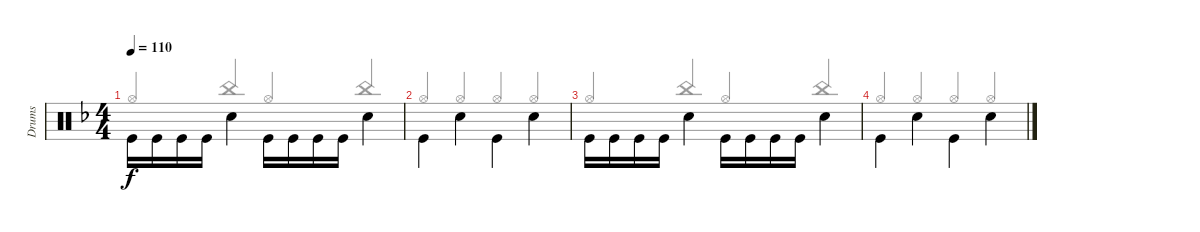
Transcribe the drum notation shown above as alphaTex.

\track ("Drums" "Drums") {instrument percussion}
\staff {score}
\articulation defaults
\voice
\ts (4 4)
\tempo 110
\clef neutral
\ks f "Kick (hit)".16{dy f beam Down} "Kick (hit)".16{beam Down} "Kick (hit)".16{beam Down} "Kick (hit)".16{beam Down} "Snare (hit) 2".4{beam Down} "Kick (hit)".16{beam Down} "Kick (hit)".16{beam Down} "Kick (hit)".16{beam Down} "Kick (hit)".16{beam Down} "Snare (hit) 2".4{beam Down}
|
"Kick (hit)".4{beam Down} "Snare (hit) 2".4{beam Down} "Kick (hit)".4{beam Down} "Snare (hit) 2".4{beam Down} |
"Kick (hit)".16{beam Down} "Kick (hit)".16{beam Down} "Kick (hit)".16{beam Down} "Kick (hit)".16{beam Down} "Snare (hit) 2".4{beam Down} "Kick (hit)".16{beam Down} "Kick (hit)".16{beam Down} "Kick (hit)".16{beam Down} "Kick (hit)".16{beam Down} "Snare (hit) 2".4{beam Down} |
"Kick (hit)".4{beam Down} "Snare (hit) 2".4{beam Down} "Kick (hit)".4{beam Down} "Snare (hit) 2".4{beam Down}
\voice
\clef neutral
\ottava regular
\simile none
\ks f "Hi-Hat (open)".4{dy f beam Up} "China (hit)".4{beam Up} "Hi-Hat (open)".4{beam Up} "China (hit)".4{beam Up}
|
"Hi-Hat (open)".4{beam Up} "Hi-Hat (open)".4{beam Up} "Hi-Hat (open)".4{beam Up} "Hi-Hat (open)".4{beam Up} |
"Hi-Hat (open)".4{beam Up} "China (hit)".4{beam Up} "Hi-Hat (open)".4{beam Up} "China (hit)".4{beam Up} |
"Hi-Hat (open)".4{beam Up} "Hi-Hat (open)".4{beam Up} "Hi-Hat (open)".4{beam Up} "Hi-Hat (open)".4{beam Up}
